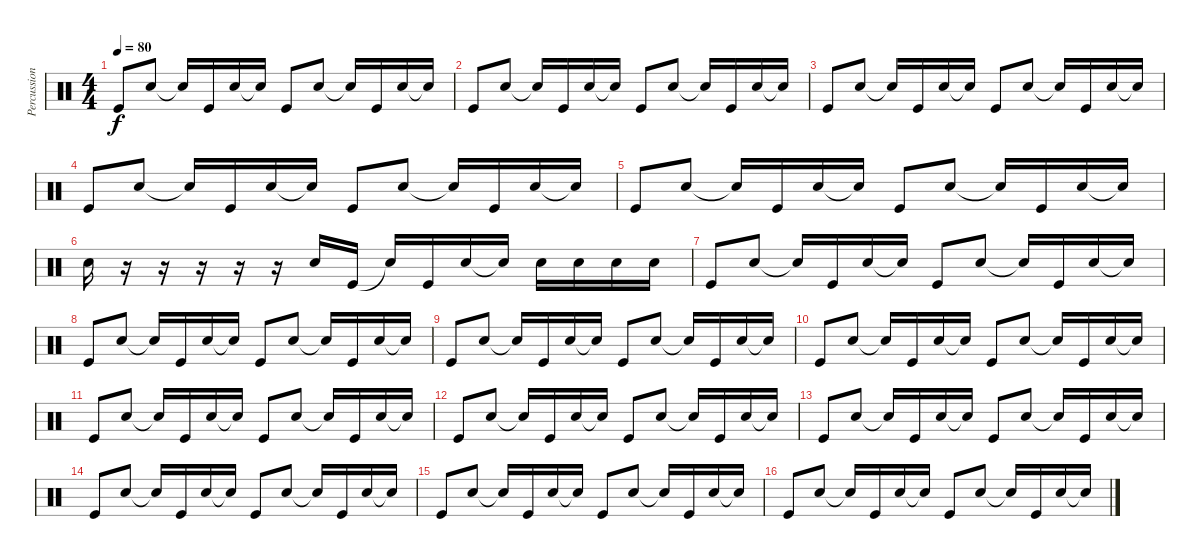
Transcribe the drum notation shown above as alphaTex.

\track ("Percussion" "Percussion") {instrument percussion}
\staff {score}
\articulation defaults
\ts (4 4)
\tempo 80
\clef neutral
\ks c "Kick (hit)".8{dy f} "Snare (hit) 2".8 "Snare (hit)"{t}.16 "Kick (hit)".16 "Snare (hit) 2".16 "Snare (hit)"{t}.16 "Kick (hit)".8 "Snare (hit) 2".8 "Snare (hit)"{t}.16 "Kick (hit)".16 "Snare (hit) 2".16 "Snare (hit)"{t}.16
|
"Kick (hit)".8 "Snare (hit) 2".8 "Snare (hit)"{t}.16 "Kick (hit)".16 "Snare (hit) 2".16 "Snare (hit)"{t}.16 "Kick (hit)".8 "Snare (hit) 2".8 "Snare (hit)"{t}.16 "Kick (hit)".16 "Snare (hit) 2".16 "Snare (hit)"{t}.16 |
"Kick (hit)".8 "Snare (hit) 2".8 "Snare (hit)"{t}.16 "Kick (hit)".16 "Snare (hit) 2".16 "Snare (hit)"{t}.16 "Kick (hit)".8 "Snare (hit) 2".8 "Snare (hit)"{t}.16 "Kick (hit)".16 "Snare (hit) 2".16 "Snare (hit)"{t}.16 |
"Kick (hit)".8 "Snare (hit) 2".8 "Snare (hit)"{t}.16 "Kick (hit)".16 "Snare (hit) 2".16 "Snare (hit)"{t}.16 "Kick (hit)".8 "Snare (hit) 2".8 "Snare (hit)"{t}.16 "Kick (hit)".16 "Snare (hit) 2".16 "Snare (hit)"{t}.16 |
"Kick (hit)".8 "Snare (hit) 2".8 "Snare (hit)"{t}.16 "Kick (hit)".16 "Snare (hit) 2".16 "Snare (hit)"{t}.16 "Kick (hit)".8 "Snare (hit) 2".8 "Snare (hit)"{t}.16 "Kick (hit)".16 "Snare (hit) 2".16 "Snare (hit)"{t}.16 |
"Snare (hit) 2".16 r.16 r.16 r.16 r.16 r.16 "Snare (hit) 2".16 "Kick (hit)".16 "Snare (hit)"{t}.16 "Kick (hit)".16 "Snare (hit) 2".16 "Snare (hit)"{t}.16 "Snare (hit) 2".16 "Snare (hit) 2".16 "Snare (hit) 2".16 "Snare (hit) 2".16 |
"Kick (hit)".8 "Snare (hit) 2".8 "Snare (hit)"{t}.16 "Kick (hit)".16 "Snare (hit) 2".16 "Snare (hit)"{t}.16 "Kick (hit)".8 "Snare (hit) 2".8 "Snare (hit)"{t}.16 "Kick (hit)".16 "Snare (hit) 2".16 "Snare (hit)"{t}.16 |
"Kick (hit)".8 "Snare (hit) 2".8 "Snare (hit)"{t}.16 "Kick (hit)".16 "Snare (hit) 2".16 "Snare (hit)"{t}.16 "Kick (hit)".8 "Snare (hit) 2".8 "Snare (hit)"{t}.16 "Kick (hit)".16 "Snare (hit) 2".16 "Snare (hit)"{t}.16 |
"Kick (hit)".8 "Snare (hit) 2".8 "Snare (hit)"{t}.16 "Kick (hit)".16 "Snare (hit) 2".16 "Snare (hit)"{t}.16 "Kick (hit)".8 "Snare (hit) 2".8 "Snare (hit)"{t}.16 "Kick (hit)".16 "Snare (hit) 2".16 "Snare (hit)"{t}.16 |
"Kick (hit)".8 "Snare (hit) 2".8 "Snare (hit)"{t}.16 "Kick (hit)".16 "Snare (hit) 2".16 "Snare (hit)"{t}.16 "Kick (hit)".8 "Snare (hit) 2".8 "Snare (hit)"{t}.16 "Kick (hit)".16 "Snare (hit) 2".16 "Snare (hit)"{t}.16 |
"Kick (hit)".8 "Snare (hit) 2".8 "Snare (hit)"{t}.16 "Kick (hit)".16 "Snare (hit) 2".16 "Snare (hit)"{t}.16 "Kick (hit)".8 "Snare (hit) 2".8 "Snare (hit)"{t}.16 "Kick (hit)".16 "Snare (hit) 2".16 "Snare (hit)"{t}.16 |
"Kick (hit)".8 "Snare (hit) 2".8 "Snare (hit)"{t}.16 "Kick (hit)".16 "Snare (hit) 2".16 "Snare (hit)"{t}.16 "Kick (hit)".8 "Snare (hit) 2".8 "Snare (hit)"{t}.16 "Kick (hit)".16 "Snare (hit) 2".16 "Snare (hit)"{t}.16 |
"Kick (hit)".8 "Snare (hit) 2".8 "Snare (hit)"{t}.16 "Kick (hit)".16 "Snare (hit) 2".16 "Snare (hit)"{t}.16 "Kick (hit)".8 "Snare (hit) 2".8 "Snare (hit)"{t}.16 "Kick (hit)".16 "Snare (hit) 2".16 "Snare (hit)"{t}.16 |
"Kick (hit)".8 "Snare (hit) 2".8 "Snare (hit)"{t}.16 "Kick (hit)".16 "Snare (hit) 2".16 "Snare (hit)"{t}.16 "Kick (hit)".8 "Snare (hit) 2".8 "Snare (hit)"{t}.16 "Kick (hit)".16 "Snare (hit) 2".16 "Snare (hit)"{t}.16 |
"Kick (hit)".8 "Snare (hit) 2".8 "Snare (hit)"{t}.16 "Kick (hit)".16 "Snare (hit) 2".16 "Snare (hit)"{t}.16 "Kick (hit)".8 "Snare (hit) 2".8 "Snare (hit)"{t}.16 "Kick (hit)".16 "Snare (hit) 2".16 "Snare (hit)"{t}.16 |
"Kick (hit)".8 "Snare (hit) 2".8 "Snare (hit)"{t}.16 "Kick (hit)".16 "Snare (hit) 2".16 "Snare (hit)"{t}.16 "Kick (hit)".8 "Snare (hit) 2".8 "Snare (hit)"{t}.16 "Kick (hit)".16 "Snare (hit) 2".16 "Snare (hit)"{t}.16
